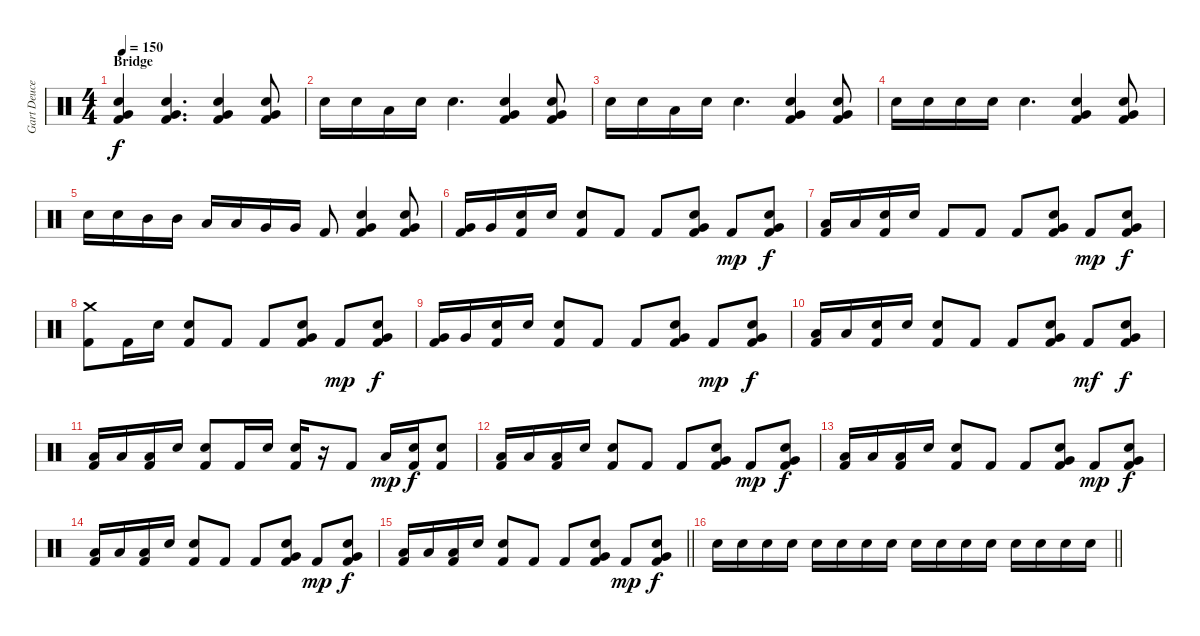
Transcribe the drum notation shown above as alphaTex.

\track ("Gart Deuce" "Gart Deuce") {instrument percussion}
\staff {score}
\articulation defaults
\ts (4 4)
\section ("" "Bridge")
\tempo 150
\clef neutral
\ks c
("Snare (hit) 2" "Very Low Tom (hit)" "Kick (hit) 2").4{dy f} ("Snare (hit) 2" "Very Low Tom (hit)" "Kick (hit) 2").4{d} ("Snare (hit) 2" "Very Low Tom (hit)" "Kick (hit) 2").4 ("Snare (hit) 2" "Very Low Tom (hit)" "Kick (hit) 2").8 |
"Snare (hit) 2".16 "Snare (hit) 2".16 "Low Tom (hit)".16 "Snare (hit) 2".16 "Snare (hit) 2".4{d} ("Snare (hit) 2" "Very Low Tom (hit)" "Kick (hit) 2").4 ("Snare (hit) 2" "Very Low Tom (hit)" "Kick (hit) 2").8 |
"Snare (hit) 2".16 "Snare (hit) 2".16 "Low Tom (hit)".16 "Snare (hit) 2".16 "Snare (hit) 2".4{d} ("Snare (hit) 2" "Very Low Tom (hit)" "Kick (hit) 2").4 ("Snare (hit) 2" "Very Low Tom (hit)" "Kick (hit) 2").8 |
"Snare (hit) 2".16 "Snare (hit) 2".16 "Snare (hit) 2".16 "Snare (hit) 2".16 "Snare (hit) 2".4{d} ("Snare (hit) 2" "Very Low Tom (hit)" "Kick (hit) 2").4 ("Snare (hit) 2" "Very Low Tom (hit)" "Kick (hit) 2").8 |
"Snare (hit) 2".16 "Snare (hit) 2".16 "Mid Tom (hit)".16 "Mid Tom (hit)".16 "Low Tom (hit)".16 "Low Tom (hit)".16 "Very Low Tom (hit)".16 "Very Low Tom (hit)".16 "Kick (hit) 2".8 ("Snare (hit) 2" "Very Low Tom (hit)" "Kick (hit) 2").4 ("Snare (hit) 2" "Very Low Tom (hit)" "Kick (hit) 2").8 |
("Very Low Tom (hit)" "Kick (hit) 2").16 "Very Low Tom (hit)".16 ("Snare (hit) 2" "Kick (hit) 2").16 "Snare (hit) 2".16 ("Snare (hit) 2" "Kick (hit) 2").8 "Kick (hit) 2".8 "Kick (hit) 2".8 ("Snare (hit) 2" "Very Low Tom (hit)" "Kick (hit) 2").8 "Kick (hit) 2".8{dy mp} ("Snare (hit) 2" "Very Low Tom (hit)" "Kick (hit) 2").8{dy f} |
("Low Tom (hit)" "Kick (hit) 2").16 "Low Tom (hit)".16 ("Snare (hit) 2" "Kick (hit) 2").16 "Snare (hit) 2".16 "Kick (hit) 2".8 "Kick (hit) 2".8 "Kick (hit) 2".8 ("Snare (hit) 2" "Very Low Tom (hit)" "Kick (hit) 2").8 "Kick (hit) 2".8{dy mp} ("Snare (hit) 2" "Very Low Tom (hit)" "Kick (hit) 2").8{dy f} |
("Crash medium (hit)" "Kick (hit) 2").8 "Kick (hit) 2".16 "Snare (hit) 2".16 ("Snare (hit) 2" "Kick (hit) 2").8 "Kick (hit) 2".8 "Kick (hit) 2".8 ("Snare (hit) 2" "Very Low Tom (hit)" "Kick (hit) 2").8 "Kick (hit) 2".8{dy mp} ("Snare (hit) 2" "Very Low Tom (hit)" "Kick (hit) 2").8{dy f} |
("Very Low Tom (hit)" "Kick (hit) 2").16 "Very Low Tom (hit)".16 ("Snare (hit) 2" "Kick (hit) 2").16 "Snare (hit) 2".16 ("Snare (hit) 2" "Kick (hit) 2").8 "Kick (hit) 2".8 "Kick (hit) 2".8 ("Snare (hit) 2" "Very Low Tom (hit)" "Kick (hit) 2").8 "Kick (hit) 2".8{dy mp} ("Snare (hit) 2" "Very Low Tom (hit)" "Kick (hit) 2").8{dy f} |
("Low Tom (hit)" "Kick (hit) 2").16 "Low Tom (hit)".16 ("Snare (hit) 2" "Kick (hit) 2").16 "Snare (hit) 2".16 ("Snare (hit) 2" "Kick (hit) 2").8 "Kick (hit) 2".8 "Kick (hit) 2".8 ("Snare (hit) 2" "Very Low Tom (hit)" "Kick (hit) 2").8 "Kick (hit) 2".8{dy mf} ("Snare (hit) 2" "Very Low Tom (hit)" "Kick (hit) 2").8{dy f} |
("Low Tom (hit)" "Kick (hit) 2").16 "Low Tom (hit)".16 ("Low Tom (hit)" "Kick (hit) 2").16 "Snare (hit) 2".16 ("Snare (hit) 2" "Kick (hit) 2").8 "Kick (hit) 2".16 "Snare (hit) 2".16 ("Snare (hit) 2" "Kick (hit) 2").16 r.16 "Kick (hit) 2".8 "Low Tom (hit)".16{dy mp} ("Snare (hit) 2" "Kick (hit) 2").16{dy f} ("Snare (hit) 2" "Kick (hit) 2").8 |
("Low Tom (hit)" "Kick (hit) 2").16 "Low Tom (hit)".16 ("Low Tom (hit)" "Kick (hit) 2").16 "Snare (hit) 2".16 ("Snare (hit) 2" "Kick (hit) 2").8 "Kick (hit) 2".8 "Kick (hit) 2".8 ("Snare (hit) 2" "Very Low Tom (hit)" "Kick (hit) 2").8 "Kick (hit) 2".8{dy mp} ("Snare (hit) 2" "Very Low Tom (hit)" "Kick (hit) 2").8{dy f} |
("Low Tom (hit)" "Kick (hit) 2").16 "Low Tom (hit)".16 ("Low Tom (hit)" "Kick (hit) 2").16 "Snare (hit) 2".16 ("Snare (hit) 2" "Kick (hit) 2").8 "Kick (hit) 2".8 "Kick (hit) 2".8 ("Snare (hit) 2" "Very Low Tom (hit)" "Kick (hit) 2").8 "Kick (hit) 2".8{dy mp} ("Snare (hit) 2" "Very Low Tom (hit)" "Kick (hit) 2").8{dy f} |
("Low Tom (hit)" "Kick (hit) 2").16 "Low Tom (hit)".16 ("Low Tom (hit)" "Kick (hit) 2").16 "Snare (hit) 2".16 ("Snare (hit) 2" "Kick (hit) 2").8 "Kick (hit) 2".8 "Kick (hit) 2".8 ("Snare (hit) 2" "Very Low Tom (hit)" "Kick (hit) 2").8 "Kick (hit) 2".8{dy mp} ("Snare (hit) 2" "Very Low Tom (hit)" "Kick (hit) 2").8{dy f} |
\barLineRight lightlight
("Low Tom (hit)" "Kick (hit) 2").16 "Low Tom (hit)".16 ("Low Tom (hit)" "Kick (hit) 2").16 "Snare (hit) 2".16 ("Snare (hit) 2" "Kick (hit) 2").8 "Kick (hit) 2".8 "Kick (hit) 2".8 ("Snare (hit) 2" "Very Low Tom (hit)" "Kick (hit) 2").8 "Kick (hit) 2".8{dy mp} ("Snare (hit) 2" "Very Low Tom (hit)" "Kick (hit) 2").8{dy f} |
\barLineRight lightlight "Snare (hit) 2".16 "Snare (hit) 2".16 "Snare (hit) 2".16 "Snare (hit) 2".16 "Snare (hit) 2".16 "Snare (hit) 2".16 "Snare (hit) 2".16 "Snare (hit) 2".16 "Snare (hit) 2".16 "Snare (hit) 2".16 "Snare (hit) 2".16 "Snare (hit) 2".16 "Snare (hit) 2".16 "Snare (hit) 2".16 "Snare (hit) 2".16 "Snare (hit) 2".16
